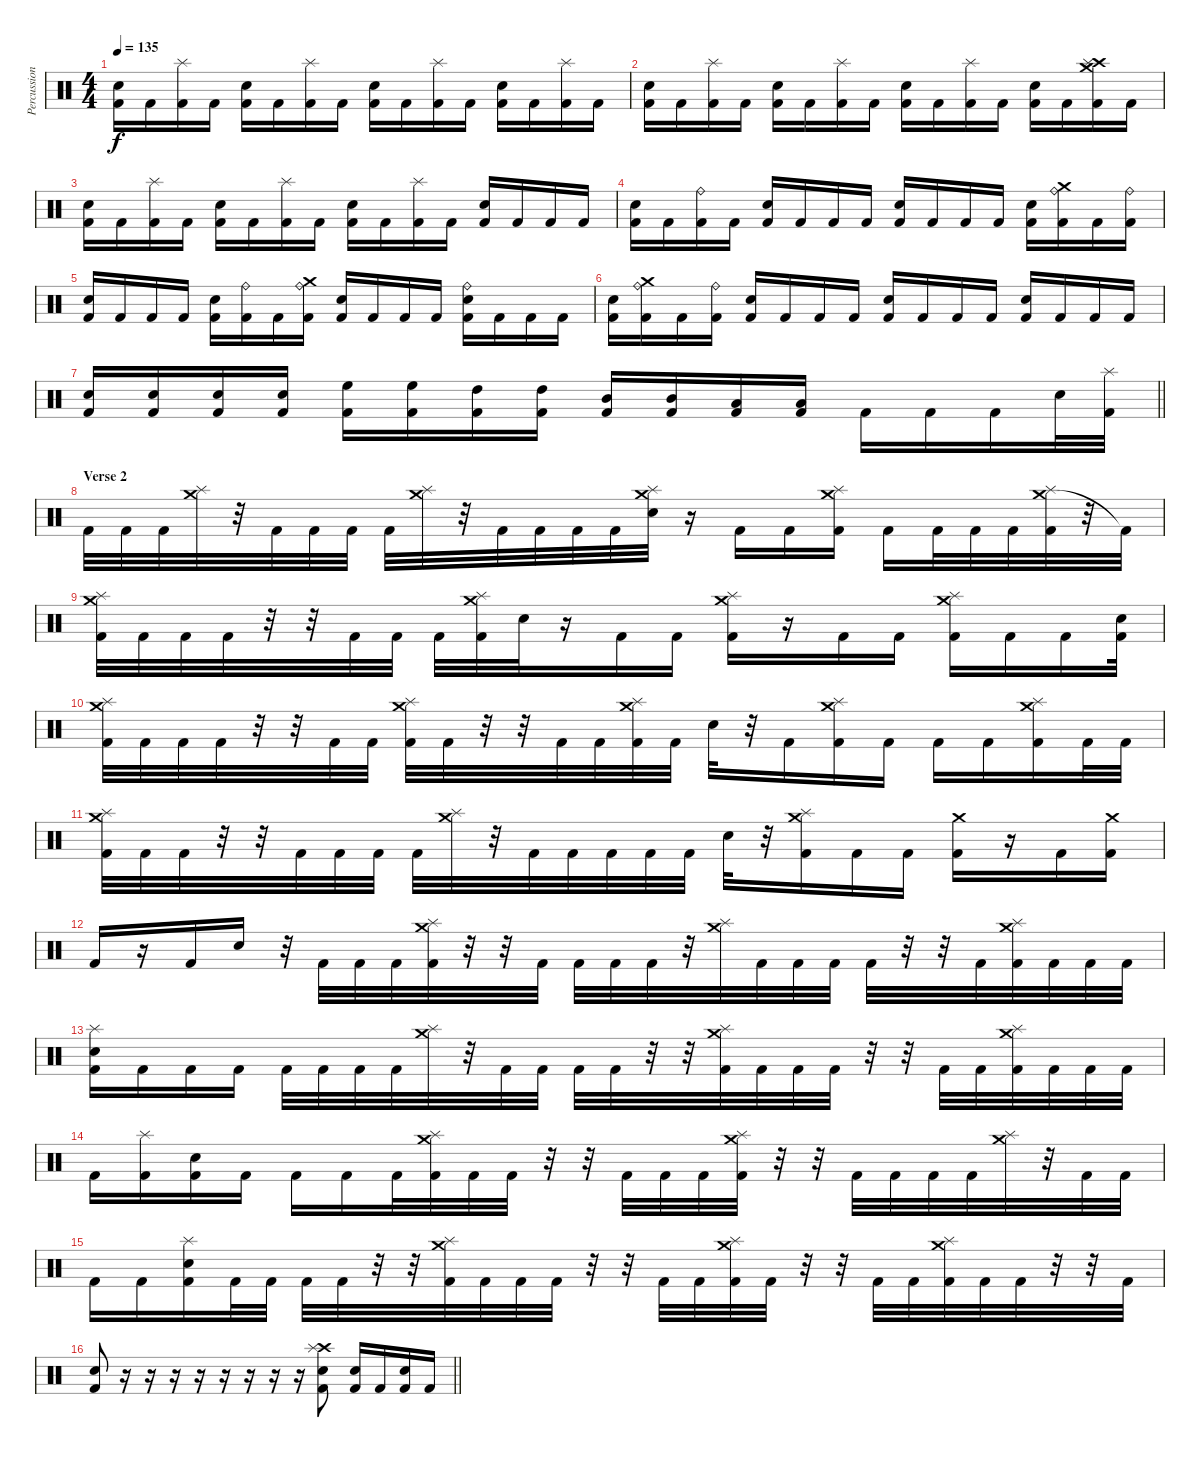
\track ("Percussion" "Percussion") {instrument percussion}
\staff {score}
\articulation defaults
\ts (4 4)
\tempo 135
\clef neutral
\ks c
("Electric Snare (hit)" "Kick (hit) 2").16{dy f} "Kick (hit) 2".16 ("Splash (hit)" "Kick (hit) 2").16 "Kick (hit) 2".16 ("Electric Snare (hit)" "Kick (hit) 2").16 "Kick (hit) 2".16 ("Splash (hit)" "Kick (hit) 2").16 "Kick (hit) 2".16 ("Electric Snare (hit)" "Kick (hit) 2").16 "Kick (hit) 2".16 ("Splash (hit)" "Kick (hit) 2").16 "Kick (hit) 2".16 ("Electric Snare (hit)" "Kick (hit) 2").16 "Kick (hit) 2".16 ("Splash (hit)" "Kick (hit) 2").16 "Kick (hit) 2".16 |
("Electric Snare (hit)" "Kick (hit) 2").16 "Kick (hit) 2".16 ("Splash (hit)" "Kick (hit) 2").16 "Kick (hit) 2".16 ("Electric Snare (hit)" "Kick (hit) 2").16 "Kick (hit) 2".16 ("Splash (hit)" "Kick (hit) 2").16 "Kick (hit) 2".16 ("Electric Snare (hit)" "Kick (hit) 2").16 "Kick (hit) 2".16 ("Splash (hit)" "Kick (hit) 2").16 "Kick (hit) 2".16 ("Electric Snare (hit)" "Kick (hit) 2").16 "Kick (hit) 2".16 ("Crash high (hit)" "Splash (hit)" "Crash medium (hit)" "Kick (hit) 2").16 "Kick (hit) 2".16 |
("Electric Snare (hit)" "Kick (hit) 2").16 "Kick (hit) 2".16 ("Splash (hit)" "Kick (hit) 2").16 "Kick (hit) 2".16 ("Electric Snare (hit)" "Kick (hit) 2").16 "Kick (hit) 2".16 ("Splash (hit)" "Kick (hit) 2").16 "Kick (hit) 2".16 ("Electric Snare (hit)" "Kick (hit) 2").16 "Kick (hit) 2".16 ("Splash (hit)" "Kick (hit) 2").16 "Kick (hit) 2".16 ("Electric Snare (hit)" "Kick (hit) 2").16 "Kick (hit) 2".16 "Kick (hit) 2".16 "Kick (hit) 2".16 |
("Electric Snare (hit)" "Kick (hit) 2").16 "Kick (hit) 2".16 ("Ride (bell)" "Kick (hit) 2").16 "Kick (hit) 2".16 ("Electric Snare (hit)" "Kick (hit) 2").16 "Kick (hit) 2".16 "Kick (hit) 2".16 "Kick (hit) 2".16 ("Electric Snare (hit)" "Kick (hit) 2").16 "Kick (hit) 2".16 "Kick (hit) 2".16 "Kick (hit) 2".16 ("Electric Snare (hit)" "Kick (hit) 2").16 ("Crash medium (hit)" "Ride (bell)" "Kick (hit) 2").16 "Kick (hit) 2".16 ("Ride (bell)" "Kick (hit) 2").16 |
("Electric Snare (hit)" "Kick (hit) 2").16 "Kick (hit) 2".16 "Kick (hit) 2".16 "Kick (hit) 2".16 ("Electric Snare (hit)" "Kick (hit) 2").16 ("Ride (bell)" "Kick (hit) 2").16 "Kick (hit) 2".16 ("Crash medium (hit)" "Ride (bell)" "Kick (hit) 2").16 ("Electric Snare (hit)" "Kick (hit) 2").16 "Kick (hit) 2".16 "Kick (hit) 2".16 "Kick (hit) 2".16 ("Ride (bell)" "Electric Snare (hit)" "Kick (hit) 2").16 "Kick (hit) 2".16 "Kick (hit) 2".16 "Kick (hit) 2".16 |
("Electric Snare (hit)" "Kick (hit) 2").16 ("Crash medium (hit)" "Ride (bell)" "Kick (hit) 2").16 "Kick (hit) 2".16 ("Ride (bell)" "Kick (hit) 2").16 ("Electric Snare (hit)" "Kick (hit) 2").16 "Kick (hit) 2".16 "Kick (hit) 2".16 "Kick (hit) 2".16 ("Electric Snare (hit)" "Kick (hit) 2").16 "Kick (hit) 2".16 "Kick (hit) 2".16 "Kick (hit) 2".16 ("Electric Snare (hit)" "Kick (hit) 2").16 "Kick (hit) 2".16 "Kick (hit) 2".16 "Kick (hit) 2".16 |
\barLineRight lightlight
("Electric Snare (hit)" "Kick (hit) 2").16 ("Electric Snare (hit)" "Kick (hit) 2").16 ("Electric Snare (hit)" "Kick (hit) 2").16 ("Electric Snare (hit)" "Kick (hit) 2").16 ("High Floor Tom (hit)" "Kick (hit) 2").16 ("High Floor Tom (hit)" "Kick (hit) 2").16 ("High Tom (hit)" "Kick (hit) 2").16 ("High Tom (hit)" "Kick (hit) 2").16 ("Mid Tom (hit)" "Kick (hit) 2").16 ("Mid Tom (hit)" "Kick (hit) 2").16 ("Low Tom (hit)" "Kick (hit) 2").16 ("Low Tom (hit)" "Kick (hit) 2").16 "Kick (hit) 2".16 "Kick (hit) 2".16 "Kick (hit) 2".16 "Electric Snare (hit)".32 ("Splash (hit)" "Kick (hit) 2").32 |
\section ("" "Verse 2")
"Kick (hit) 2".32 "Kick (hit) 2".32 "Kick (hit) 2".32 ("Crash medium (hit)" "Splash (hit)").32 r.32 "Kick (hit) 2".32 "Kick (hit) 2".32 "Kick (hit) 2".32 "Kick (hit) 2".32 ("Crash medium (hit)" "Splash (hit)").32 r.32 "Kick (hit) 2".32 "Kick (hit) 2".32 "Kick (hit) 2".32 "Kick (hit) 2".32 ("Crash medium (hit)" "Splash (hit)" "Electric Snare (hit)").32 r.16 "Kick (hit) 2".16 "Kick (hit) 2".16 ("Crash medium (hit)" "Splash (hit)" "Kick (hit) 2").16 "Kick (hit) 2".16 "Kick (hit) 2".32 "Kick (hit) 2".32 "Kick (hit) 2".32 ("Crash medium (hit)" "Splash (hit)" "Kick (hit) 2").32 r.32 "Kick (hit) 2"{t}.32 |
("Crash medium (hit)" "Splash (hit)" "Kick (hit) 2").32 "Kick (hit) 2".32 "Kick (hit) 2".32 "Kick (hit) 2".32 r.32 r.32 "Kick (hit) 2".32 "Kick (hit) 2".32 "Kick (hit) 2".32 ("Crash medium (hit)" "Splash (hit)" "Kick (hit) 2").32 "Electric Snare (hit)".32 r.16 "Kick (hit) 2".16 "Kick (hit) 2".16 ("Crash medium (hit)" "Splash (hit)" "Kick (hit) 2").16 r.16 "Kick (hit) 2".16 "Kick (hit) 2".16 ("Crash medium (hit)" "Splash (hit)" "Kick (hit) 2").16 "Kick (hit) 2".16 "Kick (hit) 2".16 ("Electric Snare (hit)" "Kick (hit) 2").32 |
("Crash medium (hit)" "Splash (hit)" "Kick (hit) 2").32 "Kick (hit) 2".32 "Kick (hit) 2".32 "Kick (hit) 2".32 r.32 r.32 "Kick (hit) 2".32 "Kick (hit) 2".32 ("Crash medium (hit)" "Splash (hit)" "Kick (hit) 2").32 "Kick (hit) 2".32 r.32 r.32 "Kick (hit) 2".32 "Kick (hit) 2".32 ("Crash medium (hit)" "Splash (hit)" "Kick (hit) 2").32 "Kick (hit) 2".32 "Electric Snare (hit)".32 r.32 "Kick (hit) 2".16 ("Crash medium (hit)" "Splash (hit)" "Kick (hit) 2").16 "Kick (hit) 2".16 "Kick (hit) 2".16 "Kick (hit) 2".16 ("Crash medium (hit)" "Splash (hit)" "Kick (hit) 2").16 "Kick (hit) 2".32 "Kick (hit) 2".32 |
("Crash medium (hit)" "Splash (hit)" "Kick (hit) 2").32 "Kick (hit) 2".32 "Kick (hit) 2".32 r.32 r.32 "Kick (hit) 2".32 "Kick (hit) 2".32 "Kick (hit) 2".32 "Kick (hit) 2".32 ("Crash medium (hit)" "Splash (hit)").32 r.32 "Kick (hit) 2".32 "Kick (hit) 2".32 "Kick (hit) 2".32 "Kick (hit) 2".32 "Kick (hit) 2".32 "Electric Snare (hit)".32 r.32 ("Crash medium (hit)" "Splash (hit)" "Kick (hit) 2").16 "Kick (hit) 2".16 "Kick (hit) 2".16 ("Crash medium (hit)" "Kick (hit) 2").16 r.16 "Kick (hit) 2".16 ("Crash medium (hit)" "Kick (hit) 2").16 |
"Kick (hit) 2".16 r.16 "Kick (hit) 2".16 "Electric Snare (hit)".16 r.32 "Kick (hit) 2".32 "Kick (hit) 2".32 "Kick (hit) 2".32 ("Crash medium (hit)" "Splash (hit)" "Kick (hit) 2").32 r.32 r.32 "Kick (hit) 2".32 "Kick (hit) 2".32 "Kick (hit) 2".32 "Kick (hit) 2".32 r.32 ("Crash medium (hit)" "Splash (hit)").32 "Kick (hit) 2".32 "Kick (hit) 2".32 "Kick (hit) 2".32 "Kick (hit) 2".32 r.32 r.32 "Kick (hit) 2".32 ("Crash medium (hit)" "Splash (hit)" "Kick (hit) 2").32 "Kick (hit) 2".32 "Kick (hit) 2".32 "Kick (hit) 2".32 |
("Splash (hit)" "Electric Snare (hit)" "Kick (hit) 2").16 "Kick (hit) 2".16 "Kick (hit) 2".16 "Kick (hit) 2".16 "Kick (hit) 2".32 "Kick (hit) 2".32 "Kick (hit) 2".32 "Kick (hit) 2".32 ("Crash medium (hit)" "Splash (hit)").32 r.32 "Kick (hit) 2".32 "Kick (hit) 2".32 "Kick (hit) 2".32 "Kick (hit) 2".32 r.32 r.32 ("Crash medium (hit)" "Splash (hit)" "Kick (hit) 2").32 "Kick (hit) 2".32 "Kick (hit) 2".32 "Kick (hit) 2".32 r.32 r.32 "Kick (hit) 2".32 "Kick (hit) 2".32 ("Crash medium (hit)" "Splash (hit)" "Kick (hit) 2").32 "Kick (hit) 2".32 "Kick (hit) 2".32 "Kick (hit) 2".32 |
"Kick (hit) 2".16 ("Splash (hit)" "Kick (hit) 2").16 ("Electric Snare (hit)" "Kick (hit) 2").16 "Kick (hit) 2".16 "Kick (hit) 2".16 "Kick (hit) 2".16 "Kick (hit) 2".32 ("Crash medium (hit)" "Splash (hit)" "Kick (hit) 2").32 "Kick (hit) 2".32 "Kick (hit) 2".32 r.32 r.32 "Kick (hit) 2".32 "Kick (hit) 2".32 "Kick (hit) 2".32 ("Crash medium (hit)" "Splash (hit)" "Kick (hit) 2").32 r.32 r.32 "Kick (hit) 2".32 "Kick (hit) 2".32 "Kick (hit) 2".32 "Kick (hit) 2".32 ("Crash medium (hit)" "Splash (hit)").32 r.32 "Kick (hit) 2".32 "Kick (hit) 2".32 |
"Kick (hit) 2".16 "Kick (hit) 2".16 ("Splash (hit)" "Electric Snare (hit)" "Kick (hit) 2").16 "Kick (hit) 2".32 "Kick (hit) 2".32 "Kick (hit) 2".32 "Kick (hit) 2".32 r.32 r.32 ("Crash medium (hit)" "Splash (hit)" "Kick (hit) 2").32 "Kick (hit) 2".32 "Kick (hit) 2".32 "Kick (hit) 2".32 r.32 r.32 "Kick (hit) 2".32 "Kick (hit) 2".32 ("Crash medium (hit)" "Splash (hit)" "Kick (hit) 2").32 "Kick (hit) 2".32 r.32 r.32 "Kick (hit) 2".32 "Kick (hit) 2".32 ("Crash medium (hit)" "Splash (hit)" "Kick (hit) 2").32 "Kick (hit) 2".32 "Kick (hit) 2".32 r.32 r.32 "Kick (hit) 2".32 |
\barLineRight lightlight
("Electric Snare (hit)" "Kick (hit) 2").8 r.16 r.16 r.16 r.16 r.16 r.16 r.16 r.16 ("Crash high (hit)" "Splash (hit)" "Electric Snare (hit)" "Kick (hit) 2").8 ("Electric Snare (hit)" "Kick (hit) 2").16 "Kick (hit) 2".16 ("Electric Snare (hit)" "Kick (hit) 2").16 "Kick (hit) 2".16
